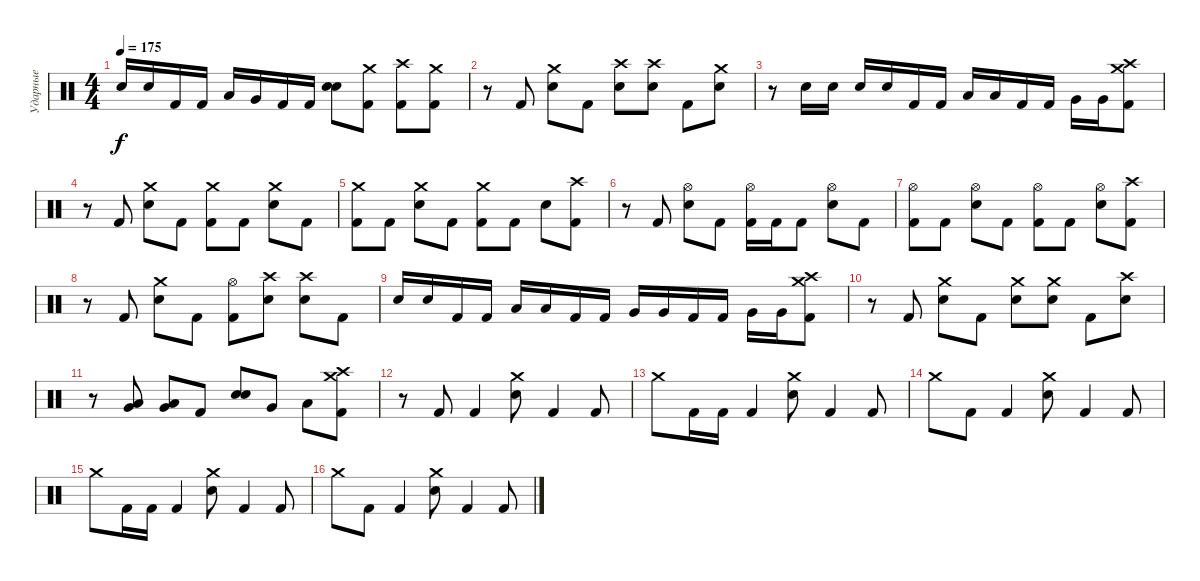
\track ("Ударные" "Ударные") {instrument percussion}
\staff {score}
\articulation defaults
\ts (4 4)
\tempo 175
\clef neutral
\ks c "Electric Snare (hit)".16{dy f} "Electric Snare (hit)".16 "Kick (hit) 2".16 "Kick (hit) 2".16 "Low Tom (hit)".16 "Very Low Tom (hit)".16 "Kick (hit) 2".16 "Kick (hit) 2".16
("Electric Snare (hit)" "Electric Snare (hit)").8{bd 60} ("Crash medium (hit)" "Kick (hit) 2").8 ("Crash high (hit)" "Kick (hit) 2").8 ("Crash medium (hit)" "Kick (hit) 2").8 |
r.8 "Kick (hit) 2".8 ("Crash medium (hit)" "Electric Snare (hit)").8 "Kick (hit) 2".8 ("Crash high (hit)" "Electric Snare (hit)").8 ("Crash high (hit)" "Electric Snare (hit)").8 "Kick (hit) 2".8 ("Crash medium (hit)" "Electric Snare (hit)").8 |
r.8 "Electric Snare (hit)".16 "Electric Snare (hit)".16 "Electric Snare (hit)".16 "Electric Snare (hit)".16 "Kick (hit) 2".16 "Kick (hit) 2".16 "Low Tom (hit)".16 "Low Tom (hit)".16 "Kick (hit) 2".16 "Kick (hit) 2".16 "Very Low Tom (hit)".16 "Very Low Tom (hit)".16 ("Crash high (hit)" "Crash medium (hit)" "Kick (hit) 2").8 |
r.8 "Kick (hit) 2".8 ("Crash medium (hit)" "Electric Snare (hit)").8 "Kick (hit) 2".8 ("Crash medium (hit)" "Kick (hit) 2").8 "Kick (hit) 2".8 ("Crash medium (hit)" "Electric Snare (hit)").8 "Kick (hit) 2".8 |
("Crash medium (hit)" "Kick (hit) 2").8 "Kick (hit) 2".8 ("Crash medium (hit)" "Electric Snare (hit)").8 "Kick (hit) 2".8 ("Crash medium (hit)" "Kick (hit) 2").8 "Kick (hit) 2".8 "Electric Snare (hit)".8 ("Crash high (hit)" "Kick (hit) 2").8 |
r.8 "Kick (hit) 2".8 ("Hi-Hat (open)" "Electric Snare (hit)").8 "Kick (hit) 2".8 ("Hi-Hat (open)" "Kick (hit) 2").16 "Kick (hit) 2".16 "Kick (hit) 2".8 ("Hi-Hat (open)" "Electric Snare (hit)").8 "Kick (hit) 2".8 |
("Hi-Hat (open)" "Kick (hit) 2").8 "Kick (hit) 2".8 ("Hi-Hat (open)" "Electric Snare (hit)").8 "Kick (hit) 2".8 ("Hi-Hat (open)" "Kick (hit) 2").8 "Kick (hit) 2".8 ("Hi-Hat (open)" "Electric Snare (hit)").8 ("Crash high (hit)" "Kick (hit) 2").8 |
r.8 "Kick (hit) 2".8 ("Crash medium (hit)" "Electric Snare (hit)").8 "Kick (hit) 2".8 ("Hi-Hat (open)" "Kick (hit) 2").8 ("Crash high (hit)" "Electric Snare (hit)").8 ("Crash high (hit)" "Electric Snare (hit)").8 "Kick (hit) 2".8 |
"Electric Snare (hit)".16 "Electric Snare (hit)".16 "Kick (hit) 2".16 "Kick (hit) 2".16 "Low Tom (hit)".16 "Low Tom (hit)".16 "Kick (hit) 2".16 "Kick (hit) 2".16 "Very Low Tom (hit)".16 "Very Low Tom (hit)".16 "Kick (hit) 2".16 "Kick (hit) 2".16 "Very Low Tom (hit)".16 "Very Low Tom (hit)".16 ("Crash high (hit)" "Crash medium (hit)" "Kick (hit) 2").8 |
r.8 "Kick (hit) 2".8 ("Crash medium (hit)" "Electric Snare (hit)").8 "Kick (hit) 2".8 ("Crash medium (hit)" "Electric Snare (hit)").8 ("Crash medium (hit)" "Electric Snare (hit)").8 "Kick (hit) 2".8 ("Crash high (hit)" "Electric Snare (hit)").8 |
r.8 ("Low Tom (hit)" "Very Low Tom (hit)").8 ("Low Tom (hit)" "Very Low Tom (hit)").8 "Kick (hit) 2".8 ("Electric Snare (hit)" "Electric Snare (hit)").8{bd 240} "Very Low Tom (hit)".8 "Low Tom (hit)".8 ("Crash high (hit)" "Crash medium (hit)" "Kick (hit) 2").8 |
r.8 "Kick (hit) 2".8 "Kick (hit) 2".4 ("Crash medium (hit)" "Electric Snare (hit)").8 "Kick (hit) 2".4 "Kick (hit) 2".8 |
"Crash medium (hit)".8 "Kick (hit) 2".16 "Kick (hit) 2".16 "Kick (hit) 2".4 ("Crash medium (hit)" "Electric Snare (hit)").8 "Kick (hit) 2".4 "Kick (hit) 2".8 |
"Crash medium (hit)".8 "Kick (hit) 2".8 "Kick (hit) 2".4 ("Crash medium (hit)" "Electric Snare (hit)").8 "Kick (hit) 2".4 "Kick (hit) 2".8 |
"Crash medium (hit)".8 "Kick (hit) 2".16 "Kick (hit) 2".16 "Kick (hit) 2".4 ("Crash medium (hit)" "Electric Snare (hit)").8 "Kick (hit) 2".4 "Kick (hit) 2".8 |
"Crash medium (hit)".8 "Kick (hit) 2".8 "Kick (hit) 2".4 ("Crash medium (hit)" "Electric Snare (hit)").8 "Kick (hit) 2".4 "Kick (hit) 2".8
